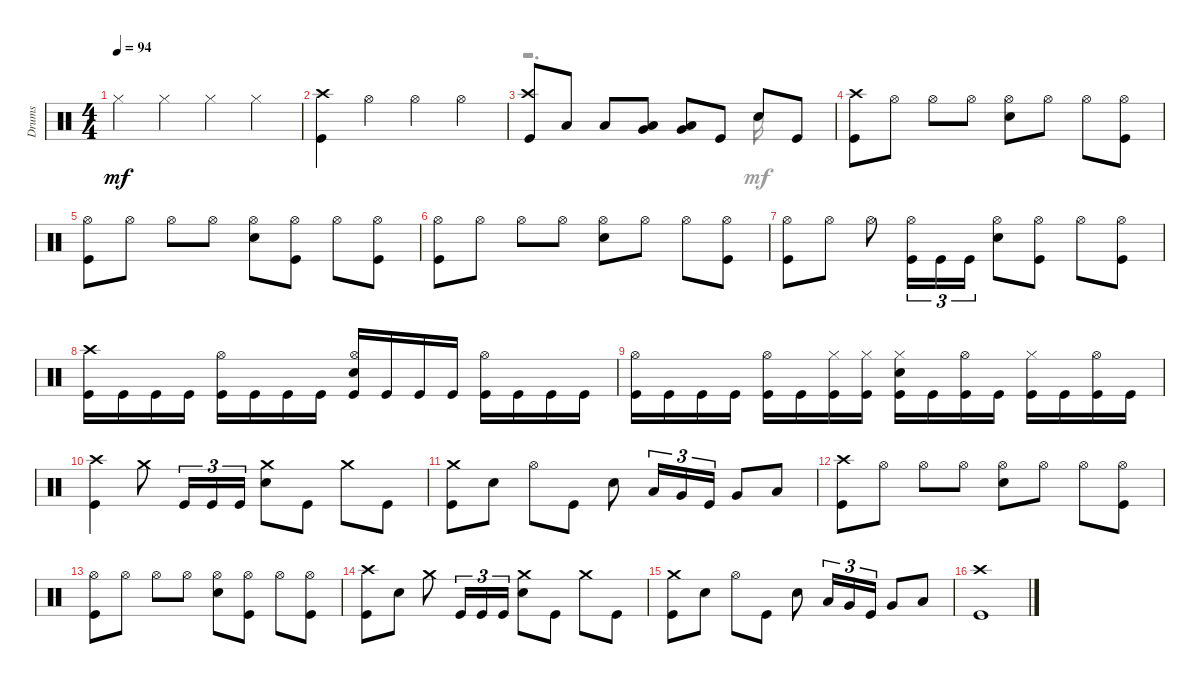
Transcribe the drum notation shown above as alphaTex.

\track ("Drums" "Drums") {instrument percussion}
\staff {score}
\articulation defaults
\voice
\ts (4 4)
\tempo 94
\clef neutral
\ks aminor "Hi-Hat (closed)".4{dy mf} "Hi-Hat (closed)".4 "Hi-Hat (closed)".4 "Hi-Hat (closed)".4
|
("Crash high (hit)" "Kick (hit)").4 "Hi-Hat (open)".4 "Hi-Hat (open)".4 "Hi-Hat (open)".4 |
("Crash high (hit)" "Kick (hit)").8 "Low Floor Tom (hit)".8 "Low Floor Tom (hit)".8 ("Low Floor Tom (hit)" "Very Low Tom (hit)").8 ("Low Floor Tom (hit)" "Very Low Tom (hit)").8 "Kick (hit)".8 "Snare (hit) 2".8 "Kick (hit)".8 |
("Crash high (hit)" "Kick (hit)").8 "Hi-Hat (open)".8 "Hi-Hat (open)".8 "Hi-Hat (open)".8 ("Snare (hit) 2" "Hi-Hat (open)").8 "Hi-Hat (open)".8 "Hi-Hat (open)".8 ("Kick (hit)" "Hi-Hat (open)").8 |
("Kick (hit)" "Hi-Hat (open)").8 "Hi-Hat (open)".8 "Hi-Hat (open)".8 "Hi-Hat (open)".8 ("Snare (hit) 2" "Hi-Hat (open)").8 ("Kick (hit)" "Hi-Hat (open)").8 "Hi-Hat (open)".8 ("Hi-Hat (open)" "Kick (hit)").8 |
("Kick (hit)" "Hi-Hat (open)").8 "Hi-Hat (open)".8 "Hi-Hat (open)".8 "Hi-Hat (open)".8 ("Hi-Hat (open)" "Snare (hit) 2").8 "Hi-Hat (open)".8 "Hi-Hat (open)".8 ("Kick (hit)" "Hi-Hat (open)").8 |
("Kick (hit)" "Hi-Hat (open)").8 "Hi-Hat (open)".8 "Hi-Hat (open)".8 ("Kick (hit)" "Hi-Hat (open)").16{tu (3 2)} "Kick (hit)".16{tu (3 2)} "Kick (hit)".16{tu (3 2)} ("Snare (hit) 2" "Hi-Hat (open)").8 ("Hi-Hat (open)" "Kick (hit)").8 "Hi-Hat (open)".8 ("Hi-Hat (open)" "Kick (hit)").8 |
("Kick (hit)" "Crash high (hit)").16 "Kick (hit)".16 "Kick (hit)".16 "Kick (hit)".16 ("Kick (hit)" "Hi-Hat (open)").16 "Kick (hit)".16 "Kick (hit)".16 "Kick (hit)".16 ("Kick (hit)" "Snare (hit) 2" "Hi-Hat (open)").16 "Kick (hit)".16 "Kick (hit)".16 "Kick (hit)".16 ("Hi-Hat (open)" "Kick (hit)").16 "Kick (hit)".16 "Kick (hit)".16 "Kick (hit)".16 |
("Kick (hit)" "Hi-Hat (open)").16 "Kick (hit)".16 "Kick (hit)".16 "Kick (hit)".16 ("Kick (hit)" "Hi-Hat (open)").16 "Kick (hit)".16 ("Kick (hit)" "Hi-Hat (closed)").16 ("Kick (hit)" "Hi-Hat (closed)").16 ("Kick (hit)" "Hi-Hat (closed)" "Snare (hit) 2").16 "Kick (hit)".16 ("Hi-Hat (open)" "Kick (hit)").16 "Kick (hit)".16 ("Kick (hit)" "Hi-Hat (closed)").16 "Kick (hit)".16 ("Hi-Hat (open)" "Kick (hit)").16 "Kick (hit)".16 |
("Kick (hit)" "Crash high (hit)").4 "Crash medium (hit)".8 "Kick (hit)".16{tu (3 2)} "Kick (hit)".16{tu (3 2)} "Kick (hit)".16{tu (3 2)} ("Snare (hit) 2" "Crash medium (hit)").8 "Kick (hit)".8 "Crash medium (hit)".8 "Kick (hit)".8 |
("Crash medium (hit)" "Kick (hit)").8 "Snare (hit) 2".8 "Hi-Hat (open)".8 "Kick (hit)".8 "Snare (hit) 2".8 "Low Tom (hit)".16{tu (3 2)} "Very Low Tom (hit)".16{tu (3 2)} "Kick (hit)".16{tu (3 2)} "Very Low Tom (hit)".8 "Low Floor Tom (hit)".8 |
("Crash high (hit)" "Kick (hit)").8 "Hi-Hat (open)".8 "Hi-Hat (open)".8 "Hi-Hat (open)".8 ("Hi-Hat (open)" "Snare (hit) 2").8 "Hi-Hat (open)".8 "Hi-Hat (open)".8 ("Kick (hit)" "Hi-Hat (open)").8 |
("Hi-Hat (open)" "Kick (hit)").8 "Hi-Hat (open)".8 "Hi-Hat (open)".8 "Hi-Hat (open)".8 ("Snare (hit) 2" "Hi-Hat (open)").8 ("Kick (hit)" "Hi-Hat (open)").8 "Hi-Hat (open)".8 ("Hi-Hat (open)" "Kick (hit)").8 |
("Crash high (hit)" "Kick (hit)").8 "Snare (hit) 2".8 "Crash medium (hit)".8 "Kick (hit)".16{tu (3 2)} "Kick (hit)".16{tu (3 2)} "Kick (hit)".16{tu (3 2)} ("Crash medium (hit)" "Snare (hit) 2").8 "Kick (hit)".8 "Crash medium (hit)".8 "Kick (hit)".8 |
("Kick (hit)" "Crash medium (hit)").8 "Snare (hit) 2".8 "Hi-Hat (open)".8 "Kick (hit)".8 "Snare (hit) 2".8 "Low Tom (hit)".16{tu (3 2)} "Very Low Tom (hit)".16{tu (3 2)} "Kick (hit)".16{tu (3 2)} "Very Low Tom (hit)".8 "Low Floor Tom (hit)".8 |
("Crash high (hit)" "Kick (hit)").1
\voice
\clef neutral
\ottava regular
\simile none
\ks aminor
|
|
r.2{d} "Snare (hit) 2".16 |
|
|
|
|
|
|
|
|
|
|
|
|
